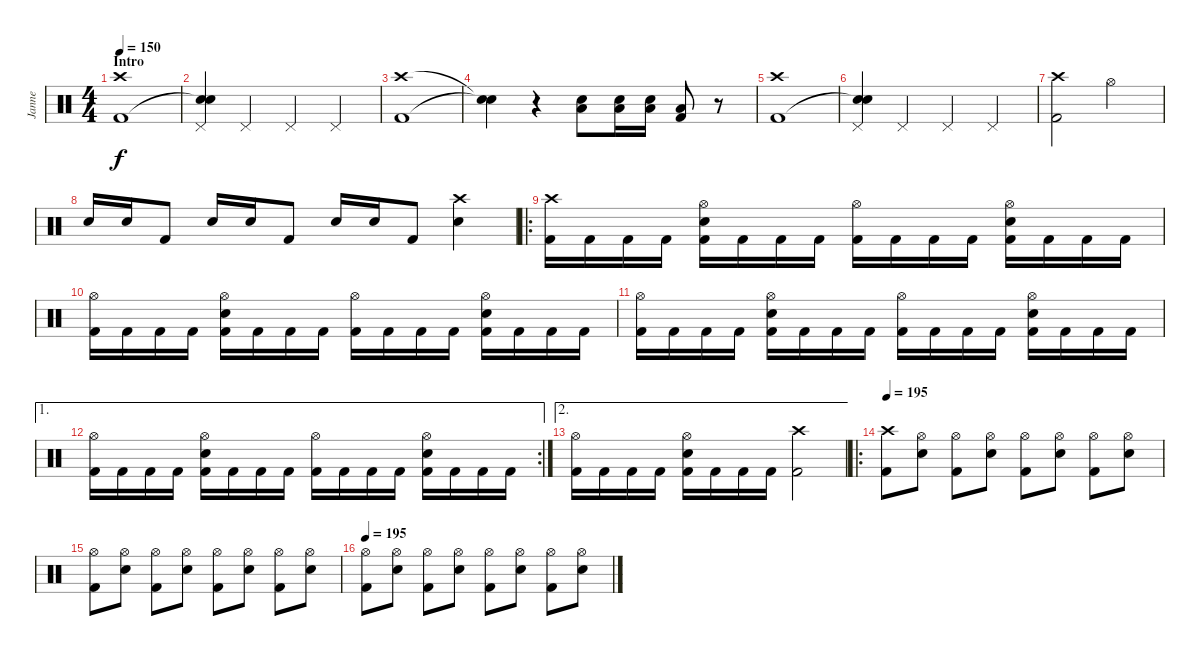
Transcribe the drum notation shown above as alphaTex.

\track ("Janne" "Janne") {instrument percussion}
\staff {score}
\articulation defaults
\ts (4 4)
\section ("" "Intro")
\tempo 150
\clef neutral
\ks c
("Crash high (hit)" "Kick (hit) 2").1{dy f} |
("Pedal Hi-Hat (hit)" "Snare (hit)"{t} "Snare (hit)").4 "Pedal Hi-Hat (hit)".4 "Pedal Hi-Hat (hit)".4 "Pedal Hi-Hat (hit)".4 |
("Crash high (hit)" "Kick (hit) 2").1 |
("Snare (hit)"{t} "Snare (hit)"{t}).4 r.4 ("Low Floor Tom (hit)" "Electric Snare (hit)").8 ("Low Floor Tom (hit)" "Electric Snare (hit)").16 ("Low Floor Tom (hit)" "Electric Snare (hit)").16 ("Low Floor Tom (hit)" "Kick (hit) 2").8 r.8 |
("Crash high (hit)" "Kick (hit) 2").1 |
("Pedal Hi-Hat (hit)" "Snare (hit)"{t} "Snare (hit)").4 "Pedal Hi-Hat (hit)".4 "Pedal Hi-Hat (hit)".4 "Pedal Hi-Hat (hit)".4 |
("Crash high (hit)" "Kick (hit) 2").2 "Hi-Hat (open)".2 |
"Electric Snare (hit)".16 "Electric Snare (hit)".16 "Kick (hit) 2".8 "Electric Snare (hit)".16 "Electric Snare (hit)".16 "Kick (hit) 2".8 "Electric Snare (hit)".16 "Electric Snare (hit)".16 "Kick (hit) 2".8 ("Crash high (hit)" "Electric Snare (hit)").4 |
\ro
("Crash high (hit)" "Kick (hit) 2").16 "Kick (hit) 2".16 "Kick (hit) 2".16 "Kick (hit) 2".16 ("Hi-Hat (open)" "Electric Snare (hit)" "Kick (hit) 2").16 "Kick (hit) 2".16 "Kick (hit) 2".16 "Kick (hit) 2".16 ("Hi-Hat (open)" "Kick (hit) 2").16 "Kick (hit) 2".16 "Kick (hit) 2".16 "Kick (hit) 2".16 ("Hi-Hat (open)" "Electric Snare (hit)" "Kick (hit) 2").16 "Kick (hit) 2".16 "Kick (hit) 2".16 "Kick (hit) 2".16 |
("Hi-Hat (open)" "Kick (hit) 2").16 "Kick (hit) 2".16 "Kick (hit) 2".16 "Kick (hit) 2".16 ("Hi-Hat (open)" "Electric Snare (hit)" "Kick (hit) 2").16 "Kick (hit) 2".16 "Kick (hit) 2".16 "Kick (hit) 2".16 ("Hi-Hat (open)" "Kick (hit) 2").16 "Kick (hit) 2".16 "Kick (hit) 2".16 "Kick (hit) 2".16 ("Hi-Hat (open)" "Electric Snare (hit)" "Kick (hit) 2").16 "Kick (hit) 2".16 "Kick (hit) 2".16 "Kick (hit) 2".16 |
("Hi-Hat (open)" "Kick (hit) 2").16 "Kick (hit) 2".16 "Kick (hit) 2".16 "Kick (hit) 2".16 ("Hi-Hat (open)" "Electric Snare (hit)" "Kick (hit) 2").16 "Kick (hit) 2".16 "Kick (hit) 2".16 "Kick (hit) 2".16 ("Hi-Hat (open)" "Kick (hit) 2").16 "Kick (hit) 2".16 "Kick (hit) 2".16 "Kick (hit) 2".16 ("Hi-Hat (open)" "Electric Snare (hit)" "Kick (hit) 2").16 "Kick (hit) 2".16 "Kick (hit) 2".16 "Kick (hit) 2".16 |
\ae 1
\rc 2
("Hi-Hat (open)" "Kick (hit) 2").16 "Kick (hit) 2".16 "Kick (hit) 2".16 "Kick (hit) 2".16 ("Hi-Hat (open)" "Electric Snare (hit)" "Kick (hit) 2").16 "Kick (hit) 2".16 "Kick (hit) 2".16 "Kick (hit) 2".16 ("Hi-Hat (open)" "Kick (hit) 2").16 "Kick (hit) 2".16 "Kick (hit) 2".16 "Kick (hit) 2".16 ("Hi-Hat (open)" "Electric Snare (hit)" "Kick (hit) 2").16 "Kick (hit) 2".16 "Kick (hit) 2".16 "Kick (hit) 2".16 |
\ae 2
("Hi-Hat (open)" "Kick (hit) 2").16 "Kick (hit) 2".16 "Kick (hit) 2".16 "Kick (hit) 2".16 ("Hi-Hat (open)" "Electric Snare (hit)" "Kick (hit) 2").16 "Kick (hit) 2".16 "Kick (hit) 2".16 "Kick (hit) 2".16 ("Crash high (hit)" "Kick (hit) 2").2 |
\ro
\tempo 195
("Crash high (hit)" "Kick (hit) 2").8 ("Hi-Hat (open)" "Electric Snare (hit)").8 ("Hi-Hat (open)" "Kick (hit) 2").8 ("Hi-Hat (open)" "Electric Snare (hit)").8 ("Hi-Hat (open)" "Kick (hit) 2").8 ("Hi-Hat (open)" "Electric Snare (hit)").8 ("Hi-Hat (open)" "Kick (hit) 2").8 ("Hi-Hat (open)" "Electric Snare (hit)").8 |
("Hi-Hat (open)" "Kick (hit) 2").8 ("Hi-Hat (open)" "Electric Snare (hit)").8 ("Hi-Hat (open)" "Kick (hit) 2").8 ("Hi-Hat (open)" "Electric Snare (hit)").8 ("Hi-Hat (open)" "Kick (hit) 2").8 ("Hi-Hat (open)" "Electric Snare (hit)").8 ("Hi-Hat (open)" "Kick (hit) 2").8 ("Hi-Hat (open)" "Electric Snare (hit)").8 |
\tempo 195
("Hi-Hat (open)" "Kick (hit) 2").8 ("Hi-Hat (open)" "Electric Snare (hit)").8 ("Hi-Hat (open)" "Kick (hit) 2").8 ("Hi-Hat (open)" "Electric Snare (hit)").8 ("Hi-Hat (open)" "Kick (hit) 2").8 ("Hi-Hat (open)" "Electric Snare (hit)").8 ("Hi-Hat (open)" "Kick (hit) 2").8 ("Hi-Hat (open)" "Electric Snare (hit)").8
